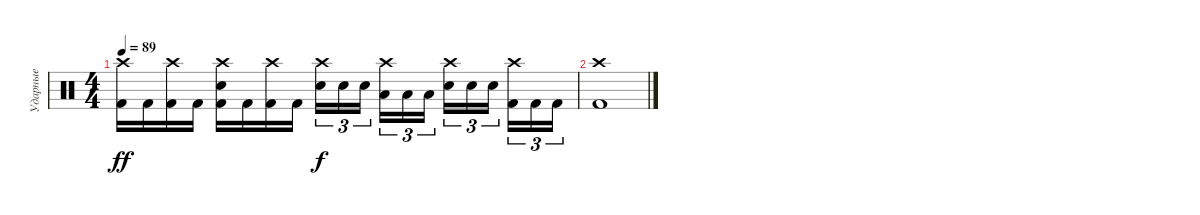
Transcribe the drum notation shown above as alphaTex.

\track ("Ударные" "Ударные") {instrument percussion}
\staff {score}
\articulation defaults
\ts (4 4)
\tempo 89
\clef neutral
\ks c
("Crash high (hit)" "Kick (hit) 2").16{dy ff} "Kick (hit) 2".16 ("Crash high (hit)" "Kick (hit) 2").16 "Kick (hit) 2".16 ("Crash high (hit)" "Kick (hit) 2" "Snare (hit) 2").16 "Kick (hit) 2".16 ("Crash high (hit)" "Kick (hit) 2").16 "Kick (hit) 2".16 ("Crash high (hit)" "Snare (hit) 2").16{tu (3 2) dy f} "Snare (hit) 2".16{tu (3 2)} "Snare (hit) 2".16{tu (3 2) beam splitsecondary} ("Crash high (hit)" "Low Floor Tom (hit)").16{tu (3 2)} "Low Floor Tom (hit)".16{tu (3 2)} "Low Floor Tom (hit)".16{tu (3 2)} ("Crash high (hit)" "Snare (hit) 2").16{tu (3 2)} "Snare (hit) 2".16{tu (3 2)} "Snare (hit) 2".16{tu (3 2) beam splitsecondary} ("Crash high (hit)" "Kick (hit) 2").16{tu (3 2)} "Kick (hit) 2".16{tu (3 2)} "Kick (hit) 2".16{tu (3 2)} |
("Crash high (hit)" "Kick (hit) 2").1
